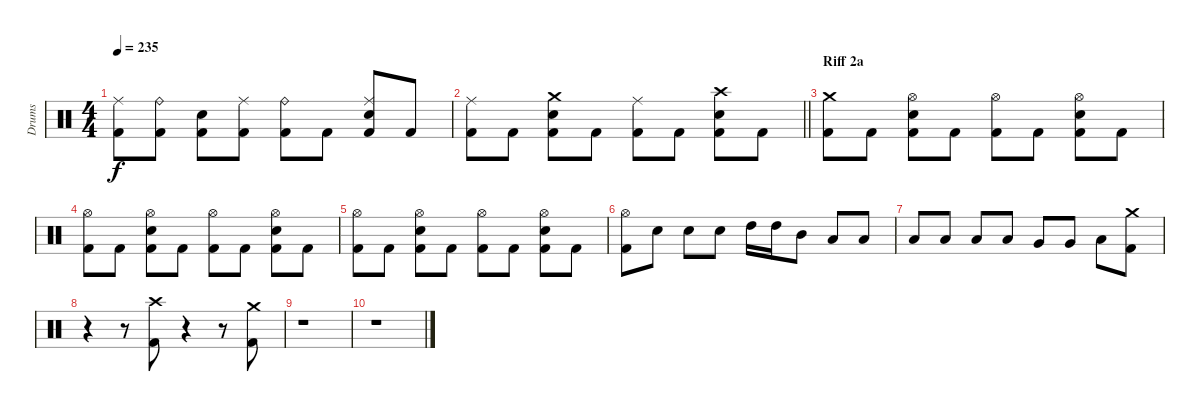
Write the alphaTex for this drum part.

\track ("Drums" "Drums") {instrument percussion}
\staff {score}
\articulation defaults
\ts (4 4)
\tempo 235
\clef neutral
\ks aminor
("Kick (hit) 2" "Ride (middle)").8{dy f} ("Kick (hit) 2" "Ride (bell)").8 ("Kick (hit) 2" "Electric Snare (hit)").8 ("Kick (hit) 2" "Ride (middle)").8 ("Kick (hit) 2" "Ride (bell)").8 "Kick (hit) 2".8 ("Kick (hit) 2" "Electric Snare (hit)" "Ride (middle)").8 "Kick (hit) 2".8 |
\barLineRight lightlight
("Ride (middle)" "Kick (hit) 2").8 "Kick (hit) 2".8 ("Crash medium (hit)" "Electric Snare (hit)" "Kick (hit) 2").8 "Kick (hit) 2".8 ("Ride (middle)" "Kick (hit) 2").8 "Kick (hit) 2".8 ("Crash high (hit)" "Electric Snare (hit)" "Kick (hit) 2").8 "Kick (hit) 2".8 |
\section ("" "Riff 2a")
("Crash medium (hit)" "Kick (hit) 2").8 "Kick (hit) 2".8 ("Electric Snare (hit)" "Kick (hit) 2" "Hi-Hat (open)").8 "Kick (hit) 2".8 ("Hi-Hat (open)" "Kick (hit) 2").8 "Kick (hit) 2".8 ("Hi-Hat (open)" "Kick (hit) 2" "Electric Snare (hit)").8 "Kick (hit) 2".8 |
("Hi-Hat (open)" "Kick (hit) 2").8 "Kick (hit) 2".8 ("Hi-Hat (open)" "Kick (hit) 2" "Electric Snare (hit)").8 "Kick (hit) 2".8 ("Hi-Hat (open)" "Kick (hit) 2").8 "Kick (hit) 2".8 ("Hi-Hat (open)" "Kick (hit) 2" "Electric Snare (hit)").8 "Kick (hit) 2".8 |
("Hi-Hat (open)" "Kick (hit) 2").8 "Kick (hit) 2".8 ("Hi-Hat (open)" "Kick (hit) 2" "Electric Snare (hit)").8 "Kick (hit) 2".8 ("Hi-Hat (open)" "Kick (hit) 2").8 "Kick (hit) 2".8 ("Hi-Hat (open)" "Kick (hit) 2" "Electric Snare (hit)").8 "Kick (hit) 2".8 |
("Hi-Hat (open)" "Kick (hit) 2").8 "Electric Snare (hit)".8 "Electric Snare (hit)".8 "Electric Snare (hit)".8 "High Tom (hit)".16 "High Tom (hit)".16 "Mid Tom (hit)".8 "Low Tom (hit)".8 "Low Tom (hit)".8 |
"Low Tom (hit)".8 "Low Tom (hit)".8 "Low Tom (hit)".8 "Low Tom (hit)".8 "Very Low Tom (hit)".8 "Very Low Tom (hit)".8 "Low Floor Tom (hit)".8 ("Crash medium (hit)" "Kick (hit) 2").8 |
r.4 r.8 ("Kick (hit) 2" "Crash high (hit)").8 r.4 r.8 ("Kick (hit) 2" "Crash medium (hit)").8 |
r.1 |
r.1
